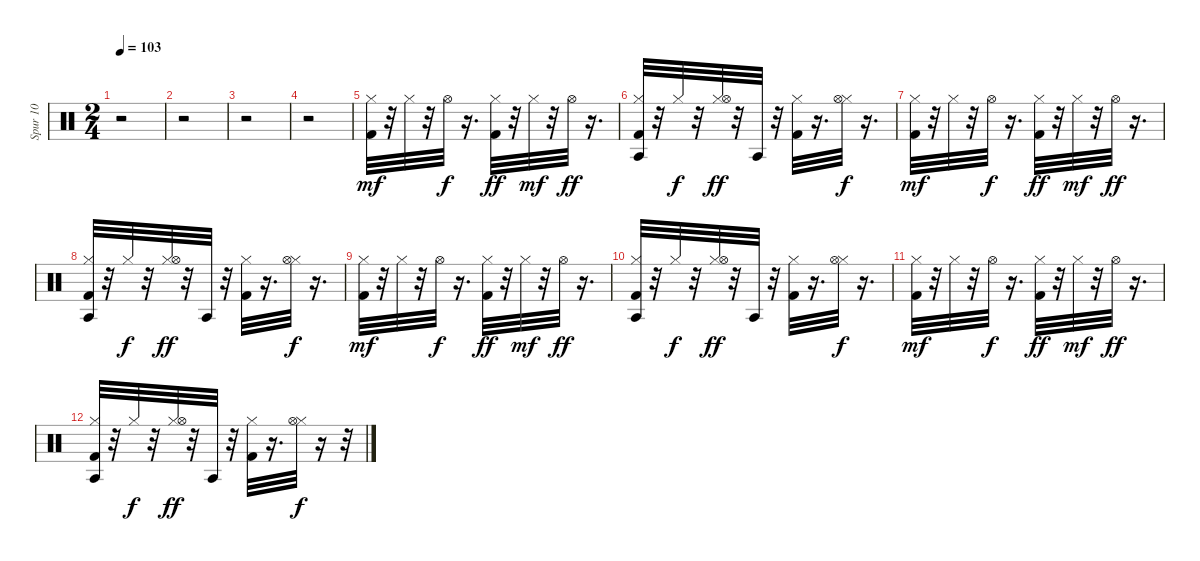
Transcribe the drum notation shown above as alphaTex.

\track ("Spur 10" "Spur 10") {instrument percussion}
\staff {score}
\articulation defaults
\ts (2 4)
\tempo 103
\clef neutral
\ks c
r.2{dy ff} |
r.2 |
r.2 |
r.2 |
("Kick (hit) 2" "Hi-Hat (closed)").32{dy mf} r.32 "Hi-Hat (closed)".32 r.32 "Hi-Hat (open)".32{dy f} r.16{d} ("Kick (hit) 2" "Hi-Hat (closed)").32{dy ff} r.32 "Hi-Hat (closed)".32{dy mf} r.32 "Hi-Hat (open)".32{dy ff} r.16{d} |
("Kick (hit) 2" "Hi-Hat (closed)" "Agogo tow (hit)").32 r.32 "Hi-Hat (closed)".32{dy f} r.32 ("Hi-Hat (closed)" "Hi-Hat (open)").32{dy ff} r.32 "Agogo tow (hit)".32 r.32 ("Kick (hit) 2" "Hi-Hat (closed)").32 r.16{d} ("Hi-Hat (closed)" "Hi-Hat (open)").32{dy f} r.16{d} |
("Kick (hit) 2" "Hi-Hat (closed)").32{dy mf} r.32 "Hi-Hat (closed)".32 r.32 "Hi-Hat (open)".32{dy f} r.16{d} ("Kick (hit) 2" "Hi-Hat (closed)").32{dy ff} r.32 "Hi-Hat (closed)".32{dy mf} r.32 "Hi-Hat (open)".32{dy ff} r.16{d} |
("Kick (hit) 2" "Hi-Hat (closed)" "Agogo tow (hit)").32 r.32 "Hi-Hat (closed)".32{dy f} r.32 ("Hi-Hat (closed)" "Hi-Hat (open)").32{dy ff} r.32 "Agogo tow (hit)".32 r.32 ("Kick (hit) 2" "Hi-Hat (closed)").32 r.16{d} ("Hi-Hat (closed)" "Hi-Hat (open)").32{dy f} r.16{d} |
("Kick (hit) 2" "Hi-Hat (closed)").32{dy mf} r.32 "Hi-Hat (closed)".32 r.32 "Hi-Hat (open)".32{dy f} r.16{d} ("Kick (hit) 2" "Hi-Hat (closed)").32{dy ff} r.32 "Hi-Hat (closed)".32{dy mf} r.32 "Hi-Hat (open)".32{dy ff} r.16{d} |
("Kick (hit) 2" "Hi-Hat (closed)" "Agogo tow (hit)").32 r.32 "Hi-Hat (closed)".32{dy f} r.32 ("Hi-Hat (closed)" "Hi-Hat (open)").32{dy ff} r.32 "Agogo tow (hit)".32 r.32 ("Kick (hit) 2" "Hi-Hat (closed)").32 r.16{d} ("Hi-Hat (closed)" "Hi-Hat (open)").32{dy f} r.16{d} |
("Kick (hit) 2" "Hi-Hat (closed)").32{dy mf} r.32 "Hi-Hat (closed)".32 r.32 "Hi-Hat (open)".32{dy f} r.16{d} ("Kick (hit) 2" "Hi-Hat (closed)").32{dy ff} r.32 "Hi-Hat (closed)".32{dy mf} r.32 "Hi-Hat (open)".32{dy ff} r.16{d} |
("Kick (hit) 2" "Hi-Hat (closed)" "Agogo tow (hit)").32 r.32 "Hi-Hat (closed)".32{dy f} r.32 ("Hi-Hat (closed)" "Hi-Hat (open)").32{dy ff} r.32 "Agogo tow (hit)".32 r.32 ("Kick (hit) 2" "Hi-Hat (closed)").32 r.16{d} ("Hi-Hat (closed)" "Hi-Hat (open)").32{dy f} r.16 r.32
